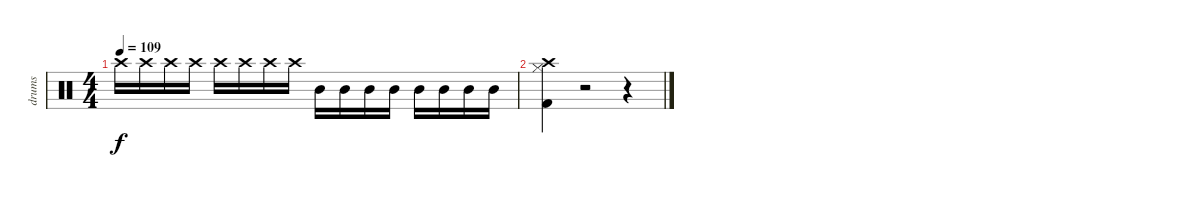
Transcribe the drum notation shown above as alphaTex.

\track ("drums" "drums") {instrument percussion}
\staff {score}
\articulation defaults
\ts (4 4)
\tempo 109
\clef neutral
\ks c "Crash high (hit)".16{dy f} "Crash high (hit)".16 "Crash high (hit)".16 "Crash high (hit)".16 "Crash high (hit)".16 "Crash high (hit)".16 "Crash high (hit)".16 "Crash high (hit)".16 "Mid Tom (hit)".16 "Mid Tom (hit)".16 "Mid Tom (hit)".16 "Mid Tom (hit)".16 "Mid Tom (hit)".16 "Mid Tom (hit)".16 "Mid Tom (hit)".16 "Mid Tom (hit)".16
|
("Hi-Hat (closed)" "Kick (hit) 2" "Crash high (hit)").4 r.2 r.4
